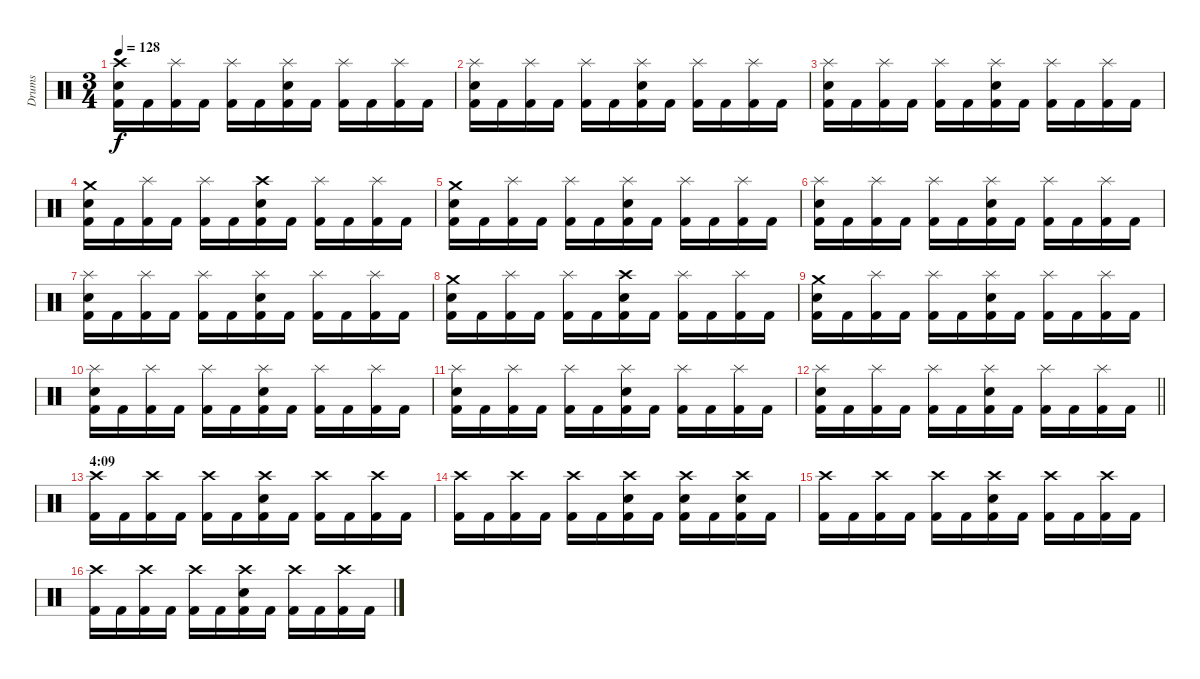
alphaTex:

\track ("Drums" "Drums") {instrument percussion}
\staff {score}
\articulation defaults
\ts (3 4)
\tempo 128
\clef neutral
\ks c
("Crash high (hit)" "Snare (hit) 2" "Kick (hit) 2").16{dy f} "Kick (hit) 2".16 ("Splash (hit)" "Kick (hit) 2").16 "Kick (hit) 2".16 ("Splash (hit)" "Kick (hit) 2").16 "Kick (hit) 2".16 ("Splash (hit)" "Snare (hit) 2" "Kick (hit) 2").16 "Kick (hit) 2".16 ("Splash (hit)" "Kick (hit) 2").16 "Kick (hit) 2".16 ("Splash (hit)" "Kick (hit) 2").16 "Kick (hit) 2".16 |
("Splash (hit)" "Snare (hit) 2" "Kick (hit) 2").16 "Kick (hit) 2".16 ("Splash (hit)" "Kick (hit) 2").16 "Kick (hit) 2".16 ("Splash (hit)" "Kick (hit) 2").16 "Kick (hit) 2".16 ("Splash (hit)" "Snare (hit) 2" "Kick (hit) 2").16 "Kick (hit) 2".16 ("Splash (hit)" "Kick (hit) 2").16 "Kick (hit) 2".16 ("Splash (hit)" "Kick (hit) 2").16 "Kick (hit) 2".16 |
("Splash (hit)" "Snare (hit) 2" "Kick (hit) 2").16 "Kick (hit) 2".16 ("Splash (hit)" "Kick (hit) 2").16 "Kick (hit) 2".16 ("Splash (hit)" "Kick (hit) 2").16 "Kick (hit) 2".16 ("Splash (hit)" "Snare (hit) 2" "Kick (hit) 2").16 "Kick (hit) 2".16 ("Splash (hit)" "Kick (hit) 2").16 "Kick (hit) 2".16 ("Splash (hit)" "Kick (hit) 2").16 "Kick (hit) 2".16 |
("Crash medium (hit)" "Snare (hit) 2" "Kick (hit) 2").16 "Kick (hit) 2".16 ("Splash (hit)" "Kick (hit) 2").16 "Kick (hit) 2".16 ("Splash (hit)" "Kick (hit) 2").16 "Kick (hit) 2".16 ("Crash high (hit)" "Snare (hit) 2" "Kick (hit) 2").16 "Kick (hit) 2".16 ("Splash (hit)" "Kick (hit) 2").16 "Kick (hit) 2".16 ("Splash (hit)" "Kick (hit) 2").16 "Kick (hit) 2".16 |
("Crash medium (hit)" "Snare (hit) 2" "Kick (hit) 2").16 "Kick (hit) 2".16 ("Splash (hit)" "Kick (hit) 2").16 "Kick (hit) 2".16 ("Splash (hit)" "Kick (hit) 2").16 "Kick (hit) 2".16 ("Splash (hit)" "Snare (hit) 2" "Kick (hit) 2").16 "Kick (hit) 2".16 ("Splash (hit)" "Kick (hit) 2").16 "Kick (hit) 2".16 ("Splash (hit)" "Kick (hit) 2").16 "Kick (hit) 2".16 |
("Splash (hit)" "Snare (hit) 2" "Kick (hit) 2").16 "Kick (hit) 2".16 ("Splash (hit)" "Kick (hit) 2").16 "Kick (hit) 2".16 ("Splash (hit)" "Kick (hit) 2").16 "Kick (hit) 2".16 ("Splash (hit)" "Snare (hit) 2" "Kick (hit) 2").16 "Kick (hit) 2".16 ("Splash (hit)" "Kick (hit) 2").16 "Kick (hit) 2".16 ("Splash (hit)" "Kick (hit) 2").16 "Kick (hit) 2".16 |
("Splash (hit)" "Snare (hit) 2" "Kick (hit) 2").16 "Kick (hit) 2".16 ("Splash (hit)" "Kick (hit) 2").16 "Kick (hit) 2".16 ("Splash (hit)" "Kick (hit) 2").16 "Kick (hit) 2".16 ("Splash (hit)" "Snare (hit) 2" "Kick (hit) 2").16 "Kick (hit) 2".16 ("Splash (hit)" "Kick (hit) 2").16 "Kick (hit) 2".16 ("Splash (hit)" "Kick (hit) 2").16 "Kick (hit) 2".16 |
("Crash medium (hit)" "Snare (hit) 2" "Kick (hit) 2").16 "Kick (hit) 2".16 ("Splash (hit)" "Kick (hit) 2").16 "Kick (hit) 2".16 ("Splash (hit)" "Kick (hit) 2").16 "Kick (hit) 2".16 ("Crash high (hit)" "Snare (hit) 2" "Kick (hit) 2").16 "Kick (hit) 2".16 ("Splash (hit)" "Kick (hit) 2").16 "Kick (hit) 2".16 ("Splash (hit)" "Kick (hit) 2").16 "Kick (hit) 2".16 |
("Crash medium (hit)" "Snare (hit) 2" "Kick (hit) 2").16 "Kick (hit) 2".16 ("Splash (hit)" "Kick (hit) 2").16 "Kick (hit) 2".16 ("Splash (hit)" "Kick (hit) 2").16 "Kick (hit) 2".16 ("Splash (hit)" "Snare (hit) 2" "Kick (hit) 2").16 "Kick (hit) 2".16 ("Splash (hit)" "Kick (hit) 2").16 "Kick (hit) 2".16 ("Splash (hit)" "Kick (hit) 2").16 "Kick (hit) 2".16 |
("Splash (hit)" "Snare (hit) 2" "Kick (hit) 2").16 "Kick (hit) 2".16 ("Splash (hit)" "Kick (hit) 2").16 "Kick (hit) 2".16 ("Splash (hit)" "Kick (hit) 2").16 "Kick (hit) 2".16 ("Splash (hit)" "Snare (hit) 2" "Kick (hit) 2").16 "Kick (hit) 2".16 ("Splash (hit)" "Kick (hit) 2").16 "Kick (hit) 2".16 ("Splash (hit)" "Kick (hit) 2").16 "Kick (hit) 2".16 |
("Splash (hit)" "Snare (hit) 2" "Kick (hit) 2").16 "Kick (hit) 2".16 ("Splash (hit)" "Kick (hit) 2").16 "Kick (hit) 2".16 ("Splash (hit)" "Kick (hit) 2").16 "Kick (hit) 2".16 ("Splash (hit)" "Snare (hit) 2" "Kick (hit) 2").16 "Kick (hit) 2".16 ("Splash (hit)" "Kick (hit) 2").16 "Kick (hit) 2".16 ("Splash (hit)" "Kick (hit) 2").16 "Kick (hit) 2".16 |
\barLineRight lightlight
("Splash (hit)" "Snare (hit) 2" "Kick (hit) 2").16 "Kick (hit) 2".16 ("Splash (hit)" "Kick (hit) 2").16 "Kick (hit) 2".16 ("Splash (hit)" "Kick (hit) 2").16 "Kick (hit) 2".16 ("Splash (hit)" "Snare (hit) 2" "Kick (hit) 2").16 "Kick (hit) 2".16 ("Splash (hit)" "Kick (hit) 2").16 "Kick (hit) 2".16 ("Splash (hit)" "Kick (hit) 2").16 "Kick (hit) 2".16 |
\section ("" "4:09")
("Crash high (hit)" "Kick (hit) 2").16 "Kick (hit) 2".16 ("Crash high (hit)" "Kick (hit) 2").16 "Kick (hit) 2".16 ("Crash high (hit)" "Kick (hit) 2").16 "Kick (hit) 2".16 ("Crash high (hit)" "Snare (hit) 2" "Kick (hit) 2").16 "Kick (hit) 2".16 ("Crash high (hit)" "Kick (hit) 2").16 "Kick (hit) 2".16 ("Crash high (hit)" "Kick (hit) 2").16 "Kick (hit) 2".16 |
("Crash high (hit)" "Kick (hit) 2").16 "Kick (hit) 2".16 ("Crash high (hit)" "Kick (hit) 2").16 "Kick (hit) 2".16 ("Crash high (hit)" "Kick (hit) 2").16 "Kick (hit) 2".16 ("Crash high (hit)" "Snare (hit) 2" "Kick (hit) 2").16 "Kick (hit) 2".16 ("Crash high (hit)" "Snare (hit) 2" "Kick (hit) 2").16 "Kick (hit) 2".16 ("Crash high (hit)" "Snare (hit) 2" "Kick (hit) 2").16 "Kick (hit) 2".16 |
("Crash high (hit)" "Kick (hit) 2").16 "Kick (hit) 2".16 ("Crash high (hit)" "Kick (hit) 2").16 "Kick (hit) 2".16 ("Crash high (hit)" "Kick (hit) 2").16 "Kick (hit) 2".16 ("Crash high (hit)" "Snare (hit) 2" "Kick (hit) 2").16 "Kick (hit) 2".16 ("Crash high (hit)" "Kick (hit) 2").16 "Kick (hit) 2".16 ("Crash high (hit)" "Kick (hit) 2").16 "Kick (hit) 2".16 |
("Crash high (hit)" "Kick (hit) 2").16 "Kick (hit) 2".16 ("Crash high (hit)" "Kick (hit) 2").16 "Kick (hit) 2".16 ("Crash high (hit)" "Kick (hit) 2").16 "Kick (hit) 2".16 ("Crash high (hit)" "Snare (hit) 2" "Kick (hit) 2").16 "Kick (hit) 2".16 ("Crash high (hit)" "Kick (hit) 2").16 "Kick (hit) 2".16 ("Crash high (hit)" "Kick (hit) 2").16 "Kick (hit) 2".16
